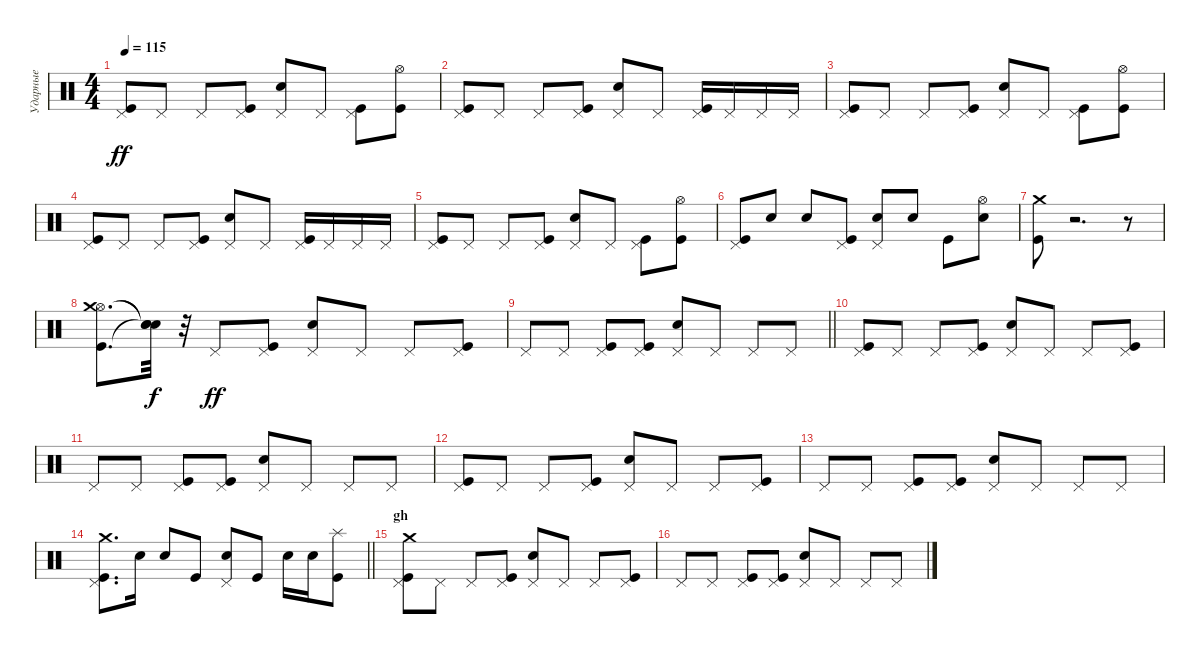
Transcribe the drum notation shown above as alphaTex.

\track ("Ударные" "Ударные") {instrument percussion}
\staff {score}
\articulation defaults
\ts (4 4)
\tempo 115
\clef neutral
\ks c
("Kick (hit)" "Pedal Hi-Hat (hit)").8{dy ff} "Pedal Hi-Hat (hit)".8 "Pedal Hi-Hat (hit)".8 ("Kick (hit)" "Pedal Hi-Hat (hit)").8 ("Electric Snare (hit)" "Pedal Hi-Hat (hit)").8 "Pedal Hi-Hat (hit)".8 ("Kick (hit)" "Pedal Hi-Hat (hit)").8 ("Kick (hit)" "Hi-Hat (open)").8 |
("Kick (hit)" "Pedal Hi-Hat (hit)").8 "Pedal Hi-Hat (hit)".8 "Pedal Hi-Hat (hit)".8 ("Kick (hit)" "Pedal Hi-Hat (hit)").8 ("Electric Snare (hit)" "Pedal Hi-Hat (hit)").8 "Pedal Hi-Hat (hit)".8 ("Kick (hit)" "Pedal Hi-Hat (hit)").16 "Pedal Hi-Hat (hit)".16 "Pedal Hi-Hat (hit)".16 "Pedal Hi-Hat (hit)".16 |
("Kick (hit)" "Pedal Hi-Hat (hit)").8 "Pedal Hi-Hat (hit)".8 "Pedal Hi-Hat (hit)".8 ("Kick (hit)" "Pedal Hi-Hat (hit)").8 ("Electric Snare (hit)" "Pedal Hi-Hat (hit)").8 "Pedal Hi-Hat (hit)".8 ("Kick (hit)" "Pedal Hi-Hat (hit)").8 ("Kick (hit)" "Hi-Hat (open)").8 |
("Kick (hit)" "Pedal Hi-Hat (hit)").8 "Pedal Hi-Hat (hit)".8 "Pedal Hi-Hat (hit)".8 ("Kick (hit)" "Pedal Hi-Hat (hit)").8 ("Electric Snare (hit)" "Pedal Hi-Hat (hit)").8 "Pedal Hi-Hat (hit)".8 ("Kick (hit)" "Pedal Hi-Hat (hit)").16 "Pedal Hi-Hat (hit)".16 "Pedal Hi-Hat (hit)".16 "Pedal Hi-Hat (hit)".16 |
("Kick (hit)" "Pedal Hi-Hat (hit)").8 "Pedal Hi-Hat (hit)".8 "Pedal Hi-Hat (hit)".8 ("Kick (hit)" "Pedal Hi-Hat (hit)").8 ("Electric Snare (hit)" "Pedal Hi-Hat (hit)").8 "Pedal Hi-Hat (hit)".8 ("Kick (hit)" "Pedal Hi-Hat (hit)").8 ("Kick (hit)" "Hi-Hat (open)").8 |
("Kick (hit)" "Pedal Hi-Hat (hit)").8 "Electric Snare (hit)".8 "Electric Snare (hit)".8 ("Kick (hit)" "Pedal Hi-Hat (hit)").8 ("Electric Snare (hit)" "Pedal Hi-Hat (hit)").8 "Electric Snare (hit)".8 "Kick (hit)".8 ("Electric Snare (hit)" "Hi-Hat (open)").8 |
("Kick (hit)" "Crash medium (hit)").8 r.2{d} r.8 |
("Kick (hit)" "Hi-Hat (open)" "Crash medium (hit)").8{d} ("Snare (hit)"{t} "Snare (hit)"{t} "Snare (hit)"{t}).32{dy f} r.32 "Pedal Hi-Hat (hit)".8{dy ff} ("Kick (hit)" "Pedal Hi-Hat (hit)").8 ("Electric Snare (hit)" "Pedal Hi-Hat (hit)").8 "Pedal Hi-Hat (hit)".8 "Pedal Hi-Hat (hit)".8 ("Kick (hit)" "Pedal Hi-Hat (hit)").8 |
\barLineRight lightlight "Pedal Hi-Hat (hit)".8 "Pedal Hi-Hat (hit)".8
("Kick (hit)" "Pedal Hi-Hat (hit)").8 ("Kick (hit)" "Pedal Hi-Hat (hit)").8 ("Electric Snare (hit)" "Pedal Hi-Hat (hit)").8 "Pedal Hi-Hat (hit)".8 "Pedal Hi-Hat (hit)".8 "Pedal Hi-Hat (hit)".8 |
("Kick (hit)" "Pedal Hi-Hat (hit)").8 "Pedal Hi-Hat (hit)".8 "Pedal Hi-Hat (hit)".8 ("Kick (hit)" "Pedal Hi-Hat (hit)").8 ("Electric Snare (hit)" "Pedal Hi-Hat (hit)").8 "Pedal Hi-Hat (hit)".8 "Pedal Hi-Hat (hit)".8 ("Kick (hit)" "Pedal Hi-Hat (hit)").8 |
"Pedal Hi-Hat (hit)".8 "Pedal Hi-Hat (hit)".8 ("Kick (hit)" "Pedal Hi-Hat (hit)").8 ("Kick (hit)" "Pedal Hi-Hat (hit)").8 ("Electric Snare (hit)" "Pedal Hi-Hat (hit)").8 "Pedal Hi-Hat (hit)".8 "Pedal Hi-Hat (hit)".8 "Pedal Hi-Hat (hit)".8 |
("Kick (hit)" "Pedal Hi-Hat (hit)").8 "Pedal Hi-Hat (hit)".8 "Pedal Hi-Hat (hit)".8 ("Kick (hit)" "Pedal Hi-Hat (hit)").8 ("Electric Snare (hit)" "Pedal Hi-Hat (hit)").8 "Pedal Hi-Hat (hit)".8 "Pedal Hi-Hat (hit)".8 ("Kick (hit)" "Pedal Hi-Hat (hit)").8 |
"Pedal Hi-Hat (hit)".8 "Pedal Hi-Hat (hit)".8 ("Kick (hit)" "Pedal Hi-Hat (hit)").8 ("Kick (hit)" "Pedal Hi-Hat (hit)").8 ("Electric Snare (hit)" "Pedal Hi-Hat (hit)").8 "Pedal Hi-Hat (hit)".8 "Pedal Hi-Hat (hit)".8 "Pedal Hi-Hat (hit)".8 |
\barLineRight lightlight
("Kick (hit)" "Pedal Hi-Hat (hit)" "Crash medium (hit)").8{d} "Electric Snare (hit)".16 "Electric Snare (hit)".8 "Kick (hit)".8 ("Electric Snare (hit)" "Pedal Hi-Hat (hit)").8 "Kick (hit)".8 "Electric Snare (hit)".16 "Electric Snare (hit)".16 ("Kick (hit)" "Splash (hit)").8 |
\section ("" "gh")
("Kick (hit)" "Pedal Hi-Hat (hit)" "Crash medium (hit)").8 "Pedal Hi-Hat (hit)".8 "Pedal Hi-Hat (hit)".8 ("Kick (hit)" "Pedal Hi-Hat (hit)").8 ("Electric Snare (hit)" "Pedal Hi-Hat (hit)").8 "Pedal Hi-Hat (hit)".8 "Pedal Hi-Hat (hit)".8 ("Kick (hit)" "Pedal Hi-Hat (hit)").8 |
"Pedal Hi-Hat (hit)".8 "Pedal Hi-Hat (hit)".8 ("Kick (hit)" "Pedal Hi-Hat (hit)").8 ("Kick (hit)" "Pedal Hi-Hat (hit)").8 ("Electric Snare (hit)" "Pedal Hi-Hat (hit)").8 "Pedal Hi-Hat (hit)".8 "Pedal Hi-Hat (hit)".8 "Pedal Hi-Hat (hit)".8
